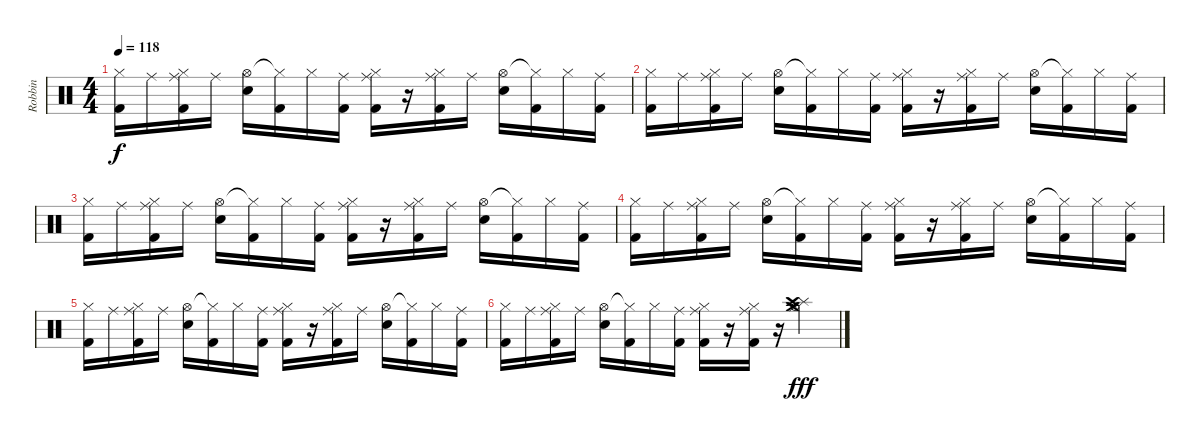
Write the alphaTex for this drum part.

\track ("Robbin" "Robbin") {instrument percussion}
\staff {score}
\articulation defaults
\ts (4 4)
\tempo 118
\clef neutral
\ks c
("Hi-Hat (closed)" "Kick (hit) 2").16{dy f} "Ride (middle)".16 ("Hi-Hat (closed)" "Ride (middle)" "Kick (hit) 2").16 "Ride (middle)".16 ("Hi-Hat (open)" "Snare (hit) 2").16 ("Hi-Hat (closed)"{t} "Kick (hit) 2").16 "Hi-Hat (closed)".16 ("Ride (middle)" "Kick (hit) 2").16 ("Hi-Hat (closed)" "Ride (middle)" "Kick (hit) 2").16 r.16 ("Hi-Hat (closed)" "Ride (middle)" "Kick (hit) 2").16 "Ride (middle)".16 ("Hi-Hat (open)" "Snare (hit) 2").16 ("Hi-Hat (closed)"{t} "Kick (hit) 2").16 "Hi-Hat (closed)".16 ("Ride (middle)" "Kick (hit) 2").16 |
("Hi-Hat (closed)" "Kick (hit) 2").16 "Ride (middle)".16 ("Hi-Hat (closed)" "Ride (middle)" "Kick (hit) 2").16 "Ride (middle)".16 ("Hi-Hat (open)" "Snare (hit) 2").16 ("Hi-Hat (closed)"{t} "Kick (hit) 2").16 "Hi-Hat (closed)".16 ("Ride (middle)" "Kick (hit) 2").16 ("Hi-Hat (closed)" "Ride (middle)" "Kick (hit) 2").16 r.16 ("Hi-Hat (closed)" "Ride (middle)" "Kick (hit) 2").16 "Ride (middle)".16 ("Hi-Hat (open)" "Snare (hit) 2").16 ("Hi-Hat (closed)"{t} "Kick (hit) 2").16 "Hi-Hat (closed)".16 ("Ride (middle)" "Kick (hit) 2").16 |
("Hi-Hat (closed)" "Kick (hit) 2").16 "Ride (middle)".16 ("Hi-Hat (closed)" "Ride (middle)" "Kick (hit) 2").16 "Ride (middle)".16 ("Hi-Hat (open)" "Snare (hit) 2").16 ("Hi-Hat (closed)"{t} "Kick (hit) 2").16 "Hi-Hat (closed)".16 ("Ride (middle)" "Kick (hit) 2").16 ("Hi-Hat (closed)" "Ride (middle)" "Kick (hit) 2").16 r.16 ("Hi-Hat (closed)" "Ride (middle)" "Kick (hit) 2").16 "Ride (middle)".16 ("Hi-Hat (open)" "Snare (hit) 2").16 ("Hi-Hat (closed)"{t} "Kick (hit) 2").16 "Hi-Hat (closed)".16 ("Ride (middle)" "Kick (hit) 2").16 |
("Hi-Hat (closed)" "Kick (hit) 2").16 "Ride (middle)".16 ("Hi-Hat (closed)" "Ride (middle)" "Kick (hit) 2").16 "Ride (middle)".16 ("Hi-Hat (open)" "Snare (hit) 2").16 ("Hi-Hat (closed)"{t} "Kick (hit) 2").16 "Hi-Hat (closed)".16 ("Ride (middle)" "Kick (hit) 2").16 ("Hi-Hat (closed)" "Ride (middle)" "Kick (hit) 2").16 r.16 ("Hi-Hat (closed)" "Ride (middle)" "Kick (hit) 2").16 "Ride (middle)".16 ("Hi-Hat (open)" "Snare (hit) 2").16 ("Hi-Hat (closed)"{t} "Kick (hit) 2").16 "Hi-Hat (closed)".16 ("Ride (middle)" "Kick (hit) 2").16 |
("Hi-Hat (closed)" "Kick (hit) 2").16 "Ride (middle)".16 ("Hi-Hat (closed)" "Ride (middle)" "Kick (hit) 2").16 "Ride (middle)".16 ("Hi-Hat (open)" "Snare (hit) 2").16 ("Hi-Hat (closed)"{t} "Kick (hit) 2").16 "Hi-Hat (closed)".16 ("Ride (middle)" "Kick (hit) 2").16 ("Hi-Hat (closed)" "Ride (middle)" "Kick (hit) 2").16 r.16 ("Hi-Hat (closed)" "Ride (middle)" "Kick (hit) 2").16 "Ride (middle)".16 ("Hi-Hat (open)" "Snare (hit) 2").16 ("Hi-Hat (closed)"{t} "Kick (hit) 2").16 "Hi-Hat (closed)".16 ("Ride (middle)" "Kick (hit) 2").16 |
("Hi-Hat (closed)" "Kick (hit) 2").16 "Ride (middle)".16 ("Hi-Hat (closed)" "Ride (middle)" "Kick (hit) 2").16 "Ride (middle)".16 ("Hi-Hat (open)" "Snare (hit) 2").16 ("Hi-Hat (closed)"{t} "Kick (hit) 2").16 "Hi-Hat (closed)".16 ("Ride (middle)" "Kick (hit) 2").16 ("Hi-Hat (closed)" "Ride (middle)" "Kick (hit) 2").16 r.16 ("Hi-Hat (closed)" "Ride (middle)" "Kick (hit) 2").16 r.16 ("Splash (hit)" "Hi-Hat (open)" "Crash medium (hit)" "Hi-Hat (closed)" "Crash high (hit)").4{dy fff}
